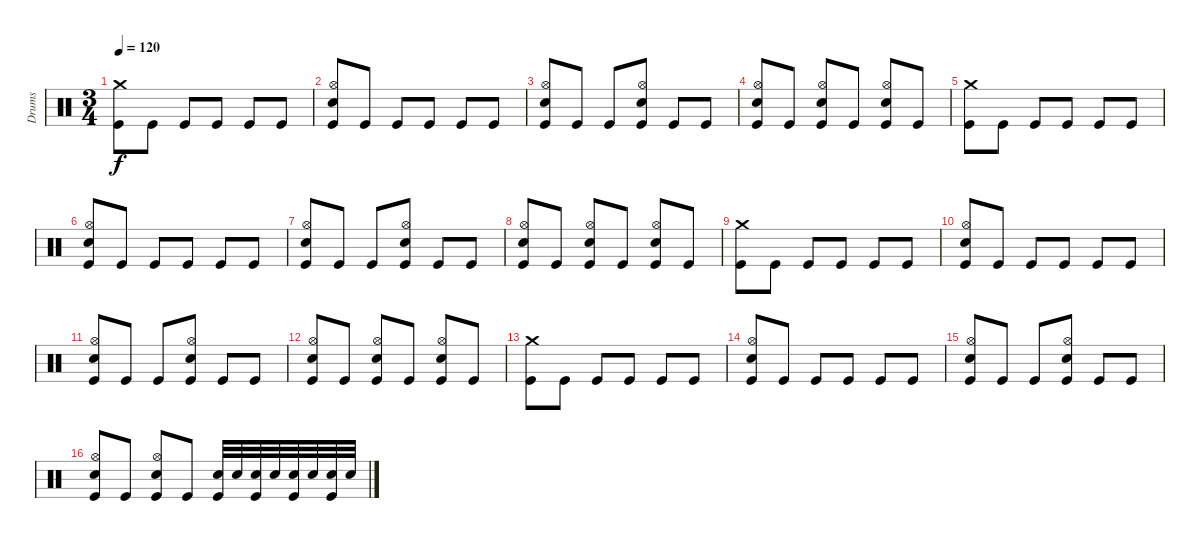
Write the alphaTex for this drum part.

\track ("Drums" "Drums") {instrument percussion}
\staff {score}
\articulation defaults
\ts (3 4)
\tempo 120
\clef neutral
\ks c
("Crash medium (hit)" "Kick (hit)").8{dy f} "Kick (hit)".8 "Kick (hit)".8 "Kick (hit)".8 "Kick (hit)".8 "Kick (hit)".8 |
("Hi-Hat (open)" "Snare (hit) 2" "Kick (hit)").8 "Kick (hit)".8 "Kick (hit)".8 "Kick (hit)".8 "Kick (hit)".8 "Kick (hit)".8 |
("Hi-Hat (open)" "Snare (hit) 2" "Kick (hit)").8 "Kick (hit)".8 "Kick (hit)".8 ("Hi-Hat (open)" "Snare (hit) 2" "Kick (hit)").8 "Kick (hit)".8 "Kick (hit)".8 |
("Hi-Hat (open)" "Snare (hit) 2" "Kick (hit)").8 "Kick (hit)".8 ("Hi-Hat (open)" "Snare (hit) 2" "Kick (hit)").8 "Kick (hit)".8 ("Hi-Hat (open)" "Snare (hit) 2" "Kick (hit)").8 "Kick (hit)".8 |
("Crash medium (hit)" "Kick (hit)").8 "Kick (hit)".8 "Kick (hit)".8 "Kick (hit)".8 "Kick (hit)".8 "Kick (hit)".8 |
("Hi-Hat (open)" "Snare (hit) 2" "Kick (hit)").8 "Kick (hit)".8 "Kick (hit)".8 "Kick (hit)".8 "Kick (hit)".8 "Kick (hit)".8 |
("Hi-Hat (open)" "Snare (hit) 2" "Kick (hit)").8 "Kick (hit)".8 "Kick (hit)".8 ("Hi-Hat (open)" "Snare (hit) 2" "Kick (hit)").8 "Kick (hit)".8 "Kick (hit)".8 |
("Hi-Hat (open)" "Snare (hit) 2" "Kick (hit)").8 "Kick (hit)".8 ("Hi-Hat (open)" "Snare (hit) 2" "Kick (hit)").8 "Kick (hit)".8 ("Hi-Hat (open)" "Snare (hit) 2" "Kick (hit)").8 "Kick (hit)".8 |
("Crash medium (hit)" "Kick (hit)").8 "Kick (hit)".8 "Kick (hit)".8 "Kick (hit)".8 "Kick (hit)".8 "Kick (hit)".8 |
("Hi-Hat (open)" "Snare (hit) 2" "Kick (hit)").8 "Kick (hit)".8 "Kick (hit)".8 "Kick (hit)".8 "Kick (hit)".8 "Kick (hit)".8 |
("Hi-Hat (open)" "Snare (hit) 2" "Kick (hit)").8 "Kick (hit)".8 "Kick (hit)".8 ("Hi-Hat (open)" "Snare (hit) 2" "Kick (hit)").8 "Kick (hit)".8 "Kick (hit)".8 |
("Hi-Hat (open)" "Snare (hit) 2" "Kick (hit)").8 "Kick (hit)".8 ("Hi-Hat (open)" "Snare (hit) 2" "Kick (hit)").8 "Kick (hit)".8 ("Hi-Hat (open)" "Snare (hit) 2" "Kick (hit)").8 "Kick (hit)".8 |
("Crash medium (hit)" "Kick (hit)").8 "Kick (hit)".8 "Kick (hit)".8 "Kick (hit)".8 "Kick (hit)".8 "Kick (hit)".8 |
("Hi-Hat (open)" "Snare (hit) 2" "Kick (hit)").8 "Kick (hit)".8 "Kick (hit)".8 "Kick (hit)".8 "Kick (hit)".8 "Kick (hit)".8 |
("Hi-Hat (open)" "Snare (hit) 2" "Kick (hit)").8 "Kick (hit)".8 "Kick (hit)".8 ("Hi-Hat (open)" "Snare (hit) 2" "Kick (hit)").8 "Kick (hit)".8 "Kick (hit)".8 |
("Hi-Hat (open)" "Snare (hit) 2" "Kick (hit)").8 "Kick (hit)".8 ("Hi-Hat (open)" "Snare (hit) 2" "Kick (hit)").8 "Kick (hit)".8 ("Snare (hit) 2" "Kick (hit)").32 "Snare (hit) 2".32 ("Snare (hit) 2" "Kick (hit)").32 "Snare (hit) 2".32 ("Snare (hit) 2" "Kick (hit)").32 "Snare (hit) 2".32 ("Snare (hit) 2" "Kick (hit)").32 "Snare (hit) 2".32
